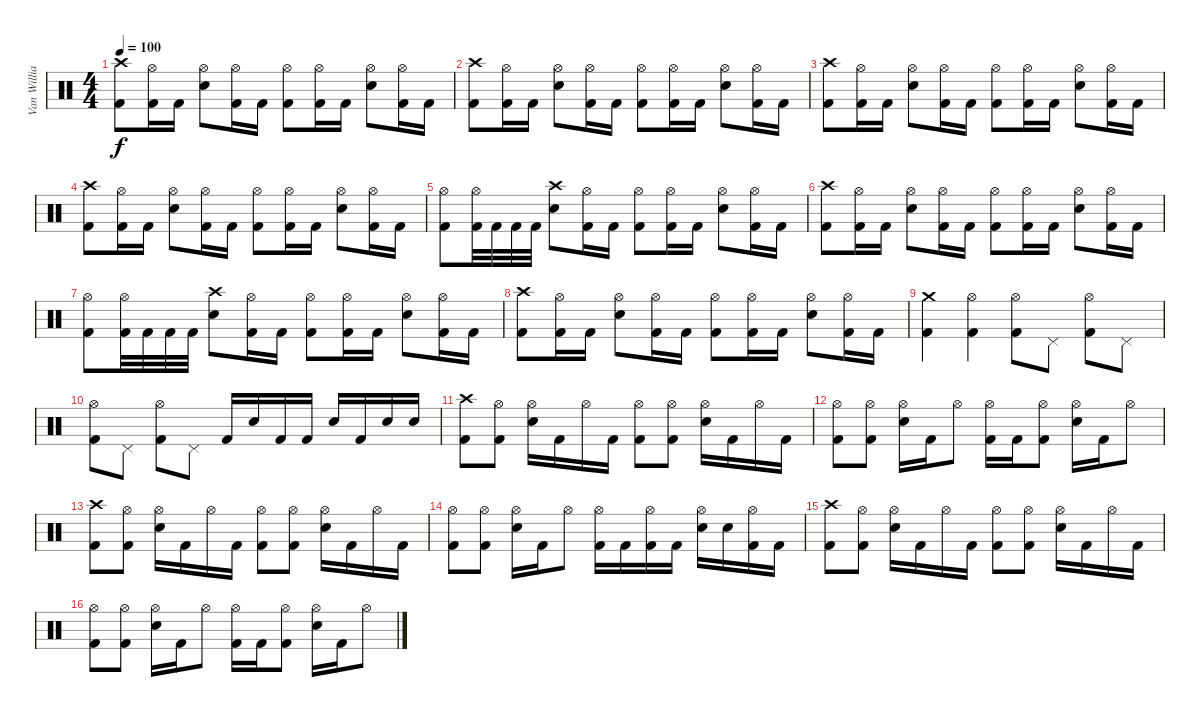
\track ("Van Williams" "Van Willia") {instrument percussion}
\staff {score}
\articulation defaults
\ts (4 4)
\tempo 100
\clef neutral
\ks c
("Crash high (hit)" "Kick (hit) 2").8{dy f} ("Hi-Hat (open)" "Kick (hit) 2").16 "Kick (hit) 2".16 ("Hi-Hat (open)" "Electric Snare (hit)").8 ("Hi-Hat (open)" "Kick (hit) 2").16 "Kick (hit) 2".16 ("Hi-Hat (open)" "Kick (hit) 2").8 ("Hi-Hat (open)" "Kick (hit) 2").16 "Kick (hit) 2".16 ("Hi-Hat (open)" "Electric Snare (hit)").8 ("Hi-Hat (open)" "Kick (hit) 2").16 "Kick (hit) 2".16 |
("Crash high (hit)" "Kick (hit) 2").8 ("Hi-Hat (open)" "Kick (hit) 2").16 "Kick (hit) 2".16 ("Hi-Hat (open)" "Electric Snare (hit)").8 ("Hi-Hat (open)" "Kick (hit) 2").16 "Kick (hit) 2".16 ("Hi-Hat (open)" "Kick (hit) 2").8 ("Hi-Hat (open)" "Kick (hit) 2").16 "Kick (hit) 2".16 ("Hi-Hat (open)" "Electric Snare (hit)").8 ("Hi-Hat (open)" "Kick (hit) 2").16 "Kick (hit) 2".16 |
("Crash high (hit)" "Kick (hit) 2").8 ("Hi-Hat (open)" "Kick (hit) 2").16 "Kick (hit) 2".16 ("Hi-Hat (open)" "Electric Snare (hit)").8 ("Hi-Hat (open)" "Kick (hit) 2").16 "Kick (hit) 2".16 ("Hi-Hat (open)" "Kick (hit) 2").8 ("Hi-Hat (open)" "Kick (hit) 2").16 "Kick (hit) 2".16 ("Hi-Hat (open)" "Electric Snare (hit)").8 ("Hi-Hat (open)" "Kick (hit) 2").16 "Kick (hit) 2".16 |
("Crash high (hit)" "Kick (hit) 2").8 ("Hi-Hat (open)" "Kick (hit) 2").16 "Kick (hit) 2".16 ("Hi-Hat (open)" "Electric Snare (hit)").8 ("Hi-Hat (open)" "Kick (hit) 2").16 "Kick (hit) 2".16 ("Hi-Hat (open)" "Kick (hit) 2").8 ("Hi-Hat (open)" "Kick (hit) 2").16 "Kick (hit) 2".16 ("Hi-Hat (open)" "Electric Snare (hit)").8 ("Hi-Hat (open)" "Kick (hit) 2").16 "Kick (hit) 2".16 |
("Hi-Hat (open)" "Kick (hit) 2").8 ("Hi-Hat (open)" "Kick (hit) 2").32 "Kick (hit) 2".32 "Kick (hit) 2".32 "Kick (hit) 2".32 ("Crash high (hit)" "Electric Snare (hit)").8 ("Hi-Hat (open)" "Kick (hit) 2").16 "Kick (hit) 2".16 ("Hi-Hat (open)" "Kick (hit) 2").8 ("Hi-Hat (open)" "Kick (hit) 2").16 "Kick (hit) 2".16 ("Hi-Hat (open)" "Electric Snare (hit)").8 ("Hi-Hat (open)" "Kick (hit) 2").16 "Kick (hit) 2".16 |
("Crash high (hit)" "Kick (hit) 2").8 ("Hi-Hat (open)" "Kick (hit) 2").16 "Kick (hit) 2".16 ("Hi-Hat (open)" "Electric Snare (hit)").8 ("Hi-Hat (open)" "Kick (hit) 2").16 "Kick (hit) 2".16 ("Hi-Hat (open)" "Kick (hit) 2").8 ("Hi-Hat (open)" "Kick (hit) 2").16 "Kick (hit) 2".16 ("Hi-Hat (open)" "Electric Snare (hit)").8 ("Hi-Hat (open)" "Kick (hit) 2").16 "Kick (hit) 2".16 |
("Hi-Hat (open)" "Kick (hit) 2").8 ("Hi-Hat (open)" "Kick (hit) 2").32 "Kick (hit) 2".32 "Kick (hit) 2".32 "Kick (hit) 2".32 ("Crash high (hit)" "Electric Snare (hit)").8 ("Hi-Hat (open)" "Kick (hit) 2").16 "Kick (hit) 2".16 ("Hi-Hat (open)" "Kick (hit) 2").8 ("Hi-Hat (open)" "Kick (hit) 2").16 "Kick (hit) 2".16 ("Hi-Hat (open)" "Electric Snare (hit)").8 ("Hi-Hat (open)" "Kick (hit) 2").16 "Kick (hit) 2".16 |
("Crash high (hit)" "Kick (hit) 2").8 ("Hi-Hat (open)" "Kick (hit) 2").16 "Kick (hit) 2".16 ("Hi-Hat (open)" "Electric Snare (hit)").8 ("Hi-Hat (open)" "Kick (hit) 2").16 "Kick (hit) 2".16 ("Hi-Hat (open)" "Kick (hit) 2").8 ("Hi-Hat (open)" "Kick (hit) 2").16 "Kick (hit) 2".16 ("Hi-Hat (open)" "Electric Snare (hit)").8 ("Hi-Hat (open)" "Kick (hit) 2").16 "Kick (hit) 2".16 |
("Crash medium (hit)" "Kick (hit) 2").4 ("Hi-Hat (open)" "Kick (hit) 2").4 ("Hi-Hat (open)" "Kick (hit) 2").8 "Pedal Hi-Hat (hit)".8 ("Hi-Hat (open)" "Kick (hit) 2").8 "Pedal Hi-Hat (hit)".8 |
("Hi-Hat (open)" "Kick (hit) 2").8 "Pedal Hi-Hat (hit)".8 ("Hi-Hat (open)" "Kick (hit) 2").8 "Pedal Hi-Hat (hit)".8 "Kick (hit) 2".16 "Electric Snare (hit)".16 "Kick (hit) 2".16 "Kick (hit) 2".16 "Electric Snare (hit)".16 "Kick (hit) 2".16 "Electric Snare (hit)".16 "Electric Snare (hit)".16 |
("Crash high (hit)" "Kick (hit) 2").8 ("Hi-Hat (open)" "Kick (hit) 2").8 ("Hi-Hat (open)" "Electric Snare (hit)").16 "Kick (hit) 2".16 "Hi-Hat (open)".16 "Kick (hit) 2".16 ("Hi-Hat (open)" "Kick (hit) 2").8 ("Hi-Hat (open)" "Kick (hit) 2").8 ("Hi-Hat (open)" "Electric Snare (hit)").16 "Kick (hit) 2".16 "Hi-Hat (open)".16 "Kick (hit) 2".16 |
("Hi-Hat (open)" "Kick (hit) 2").8 ("Hi-Hat (open)" "Kick (hit) 2").8 ("Hi-Hat (open)" "Electric Snare (hit)").16 "Kick (hit) 2".16 "Hi-Hat (open)".8 ("Hi-Hat (open)" "Kick (hit) 2").16 "Kick (hit) 2".16 ("Hi-Hat (open)" "Kick (hit) 2").8 ("Hi-Hat (open)" "Electric Snare (hit)").16 "Kick (hit) 2".16 "Hi-Hat (open)".8 |
("Crash high (hit)" "Kick (hit) 2").8 ("Hi-Hat (open)" "Kick (hit) 2").8 ("Hi-Hat (open)" "Electric Snare (hit)").16 "Kick (hit) 2".16 "Hi-Hat (open)".16 "Kick (hit) 2".16 ("Hi-Hat (open)" "Kick (hit) 2").8 ("Hi-Hat (open)" "Kick (hit) 2").8 ("Hi-Hat (open)" "Electric Snare (hit)").16 "Kick (hit) 2".16 "Hi-Hat (open)".16 "Kick (hit) 2".16 |
("Hi-Hat (open)" "Kick (hit) 2").8 ("Hi-Hat (open)" "Kick (hit) 2").8 ("Hi-Hat (open)" "Electric Snare (hit)").16 "Kick (hit) 2".16 "Hi-Hat (open)".8 ("Hi-Hat (open)" "Kick (hit) 2").16 "Kick (hit) 2".16 ("Hi-Hat (open)" "Kick (hit) 2").16 "Kick (hit) 2".16 ("Hi-Hat (open)" "Electric Snare (hit)").16 "Electric Snare (hit)".16 ("Hi-Hat (open)" "Kick (hit) 2").16 "Kick (hit) 2".16 |
("Crash high (hit)" "Kick (hit) 2").8 ("Hi-Hat (open)" "Kick (hit) 2").8 ("Hi-Hat (open)" "Electric Snare (hit)").16 "Kick (hit) 2".16 "Hi-Hat (open)".16 "Kick (hit) 2".16 ("Hi-Hat (open)" "Kick (hit) 2").8 ("Hi-Hat (open)" "Kick (hit) 2").8 ("Hi-Hat (open)" "Electric Snare (hit)").16 "Kick (hit) 2".16 "Hi-Hat (open)".16 "Kick (hit) 2".16 |
("Hi-Hat (open)" "Kick (hit) 2").8 ("Hi-Hat (open)" "Kick (hit) 2").8 ("Hi-Hat (open)" "Electric Snare (hit)").16 "Kick (hit) 2".16 "Hi-Hat (open)".8 ("Hi-Hat (open)" "Kick (hit) 2").16 "Kick (hit) 2".16 ("Hi-Hat (open)" "Kick (hit) 2").8 ("Hi-Hat (open)" "Electric Snare (hit)").16 "Kick (hit) 2".16 "Hi-Hat (open)".8
